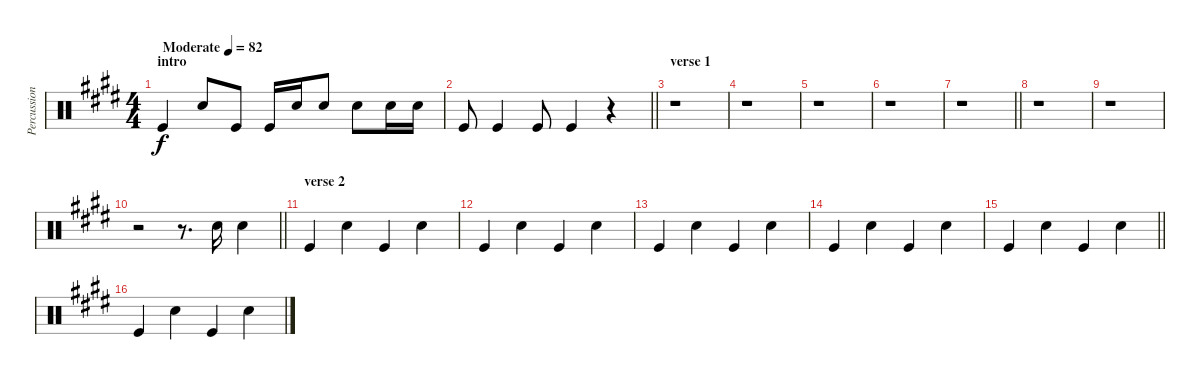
\track ("Percussion" "Percussion") {instrument percussion}
\staff {score}
\articulation defaults
\ts (4 4)
\section ("" "intro")
\tempo (82 "Moderate")
\clef neutral
\ks e "Kick (hit)".4{dy f} "Snare (hit) 2".8 "Kick (hit)".8 "Kick (hit)".16 "Snare (hit) 2".16 "Snare (hit) 2".8 "Snare (hit) 2".8 "Snare (hit) 2".16 "Snare (hit) 2".16
|
\barLineRight lightlight "Kick (hit)".8 "Kick (hit)".4 "Kick (hit)".8 "Kick (hit)".4
r.4 |
\section ("" "verse 1")
r.1 |
r.1 |
r.1 |
r.1 |
\barLineRight lightlight
r.1 |
r.1 |
r.1 |
\barLineRight lightlight
r.2 r.8{d} "Snare (hit) 2".16 "Snare (hit) 2".4 |
\section ("" "verse 2")
"Kick (hit)".4 "Snare (hit) 2".4 "Kick (hit)".4 "Snare (hit) 2".4 |
"Kick (hit)".4 "Snare (hit) 2".4 "Kick (hit)".4 "Snare (hit) 2".4 |
"Kick (hit)".4 "Snare (hit) 2".4 "Kick (hit)".4 "Snare (hit) 2".4 |
"Kick (hit)".4 "Snare (hit) 2".4 "Kick (hit)".4 "Snare (hit) 2".4 |
\barLineRight lightlight "Kick (hit)".4 "Snare (hit) 2".4 "Kick (hit)".4 "Snare (hit) 2".4
|
"Kick (hit)".4 "Snare (hit) 2".4 "Kick (hit)".4 "Snare (hit) 2".4
